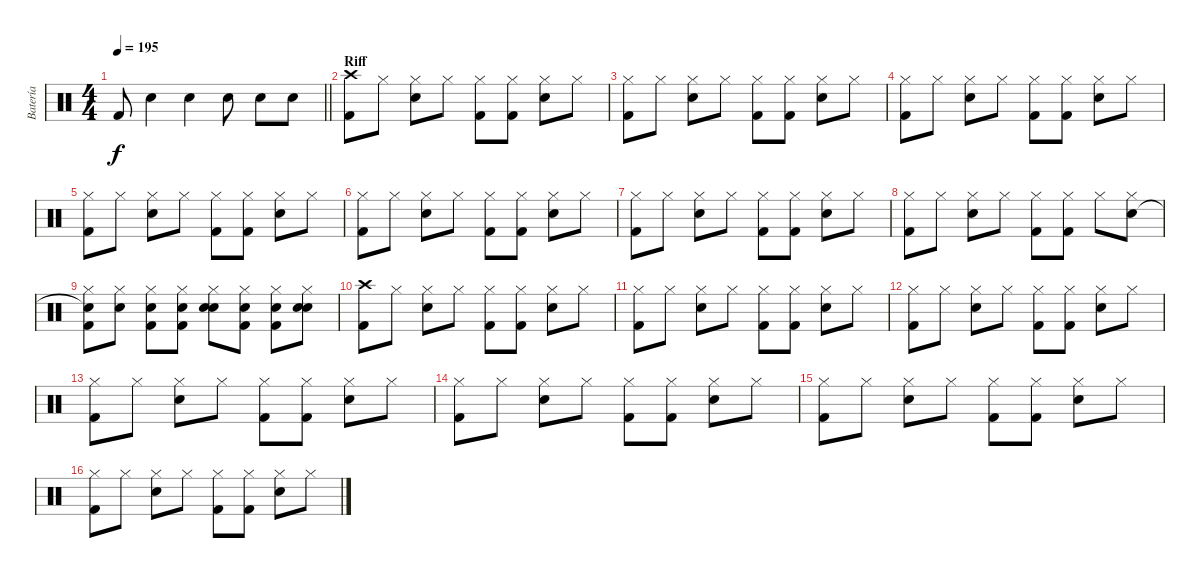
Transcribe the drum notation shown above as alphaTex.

\track ("Batería" "Batería") {instrument percussion}
\staff {score}
\articulation defaults
\ts (4 4)
\tempo 195
\clef neutral
\barLineRight lightlight
\ks c "Kick (hit) 2".8{dy f} "Snare (hit) 2".4 "Snare (hit) 2".4 "Snare (hit) 2".8 "Snare (hit) 2".8 "Snare (hit) 2".8
|
\section ("" "Riff")
("Crash high (hit)" "Kick (hit) 2").8 "Hi-Hat (closed)".8 ("Hi-Hat (closed)" "Snare (hit) 2").8 "Hi-Hat (closed)".8 ("Hi-Hat (closed)" "Kick (hit) 2").8 ("Hi-Hat (closed)" "Kick (hit) 2").8 ("Hi-Hat (closed)" "Snare (hit) 2").8 "Hi-Hat (closed)".8 |
("Hi-Hat (closed)" "Kick (hit) 2").8 "Hi-Hat (closed)".8 ("Hi-Hat (closed)" "Snare (hit) 2").8 "Hi-Hat (closed)".8 ("Hi-Hat (closed)" "Kick (hit) 2").8 ("Hi-Hat (closed)" "Kick (hit) 2").8 ("Hi-Hat (closed)" "Snare (hit) 2").8 "Hi-Hat (closed)".8 |
("Hi-Hat (closed)" "Kick (hit) 2").8 "Hi-Hat (closed)".8 ("Hi-Hat (closed)" "Snare (hit) 2").8 "Hi-Hat (closed)".8 ("Hi-Hat (closed)" "Kick (hit) 2").8 ("Hi-Hat (closed)" "Kick (hit) 2").8 ("Hi-Hat (closed)" "Snare (hit) 2").8 "Hi-Hat (closed)".8 |
("Hi-Hat (closed)" "Kick (hit) 2").8 "Hi-Hat (closed)".8 ("Hi-Hat (closed)" "Snare (hit) 2").8 "Hi-Hat (closed)".8 ("Hi-Hat (closed)" "Kick (hit) 2").8 ("Hi-Hat (closed)" "Kick (hit) 2").8 ("Hi-Hat (closed)" "Snare (hit) 2").8 "Hi-Hat (closed)".8 |
("Hi-Hat (closed)" "Kick (hit) 2").8 "Hi-Hat (closed)".8 ("Hi-Hat (closed)" "Snare (hit) 2").8 "Hi-Hat (closed)".8 ("Hi-Hat (closed)" "Kick (hit) 2").8 ("Hi-Hat (closed)" "Kick (hit) 2").8 ("Hi-Hat (closed)" "Snare (hit) 2").8 "Hi-Hat (closed)".8 |
("Hi-Hat (closed)" "Kick (hit) 2").8 "Hi-Hat (closed)".8 ("Hi-Hat (closed)" "Snare (hit) 2").8 "Hi-Hat (closed)".8 ("Hi-Hat (closed)" "Kick (hit) 2").8 ("Hi-Hat (closed)" "Kick (hit) 2").8 ("Hi-Hat (closed)" "Snare (hit) 2").8 "Hi-Hat (closed)".8 |
("Hi-Hat (closed)" "Kick (hit) 2").8 "Hi-Hat (closed)".8 ("Hi-Hat (closed)" "Snare (hit) 2").8 "Hi-Hat (closed)".8 ("Hi-Hat (closed)" "Kick (hit) 2").8 ("Hi-Hat (closed)" "Kick (hit) 2").8 "Hi-Hat (closed)".8 ("Hi-Hat (closed)" "Snare (hit) 2").8 |
("Hi-Hat (closed)" "Snare (hit)"{t} "Kick (hit) 2").8 ("Hi-Hat (closed)" "Snare (hit) 2").8 ("Hi-Hat (closed)" "Snare (hit) 2" "Kick (hit) 2").8 ("Hi-Hat (closed)" "Snare (hit) 2" "Kick (hit) 2").8 ("Hi-Hat (closed)" "Snare (hit) 2" "Snare (hit) 2").8 ("Hi-Hat (closed)" "Snare (hit) 2" "Kick (hit) 2").8 ("Hi-Hat (closed)" "Snare (hit) 2" "Kick (hit) 2").8 ("Hi-Hat (closed)" "Snare (hit) 2" "Snare (hit) 2").8 |
("Crash high (hit)" "Kick (hit) 2").8 "Hi-Hat (closed)".8 ("Hi-Hat (closed)" "Snare (hit) 2").8 "Hi-Hat (closed)".8 ("Hi-Hat (closed)" "Kick (hit) 2").8 ("Hi-Hat (closed)" "Kick (hit) 2").8 ("Hi-Hat (closed)" "Snare (hit) 2").8 "Hi-Hat (closed)".8 |
("Hi-Hat (closed)" "Kick (hit) 2").8 "Hi-Hat (closed)".8 ("Hi-Hat (closed)" "Snare (hit) 2").8 "Hi-Hat (closed)".8 ("Hi-Hat (closed)" "Kick (hit) 2").8 ("Hi-Hat (closed)" "Kick (hit) 2").8 ("Hi-Hat (closed)" "Snare (hit) 2").8 "Hi-Hat (closed)".8 |
("Hi-Hat (closed)" "Kick (hit) 2").8 "Hi-Hat (closed)".8 ("Hi-Hat (closed)" "Snare (hit) 2").8 "Hi-Hat (closed)".8 ("Hi-Hat (closed)" "Kick (hit) 2").8 ("Hi-Hat (closed)" "Kick (hit) 2").8 ("Hi-Hat (closed)" "Snare (hit) 2").8 "Hi-Hat (closed)".8 |
("Hi-Hat (closed)" "Kick (hit) 2").8 "Hi-Hat (closed)".8 ("Hi-Hat (closed)" "Snare (hit) 2").8 "Hi-Hat (closed)".8 ("Hi-Hat (closed)" "Kick (hit) 2").8 ("Hi-Hat (closed)" "Kick (hit) 2").8 ("Hi-Hat (closed)" "Snare (hit) 2").8 "Hi-Hat (closed)".8 |
("Hi-Hat (closed)" "Kick (hit) 2").8 "Hi-Hat (closed)".8 ("Hi-Hat (closed)" "Snare (hit) 2").8 "Hi-Hat (closed)".8 ("Hi-Hat (closed)" "Kick (hit) 2").8 ("Hi-Hat (closed)" "Kick (hit) 2").8 ("Hi-Hat (closed)" "Snare (hit) 2").8 "Hi-Hat (closed)".8 |
("Hi-Hat (closed)" "Kick (hit) 2").8 "Hi-Hat (closed)".8 ("Hi-Hat (closed)" "Snare (hit) 2").8 "Hi-Hat (closed)".8 ("Hi-Hat (closed)" "Kick (hit) 2").8 ("Hi-Hat (closed)" "Kick (hit) 2").8 ("Hi-Hat (closed)" "Snare (hit) 2").8 "Hi-Hat (closed)".8 |
("Hi-Hat (closed)" "Kick (hit) 2").8 "Hi-Hat (closed)".8 ("Hi-Hat (closed)" "Snare (hit) 2").8 "Hi-Hat (closed)".8 ("Hi-Hat (closed)" "Kick (hit) 2").8 ("Hi-Hat (closed)" "Kick (hit) 2").8 ("Hi-Hat (closed)" "Snare (hit) 2").8 "Hi-Hat (closed)".8
